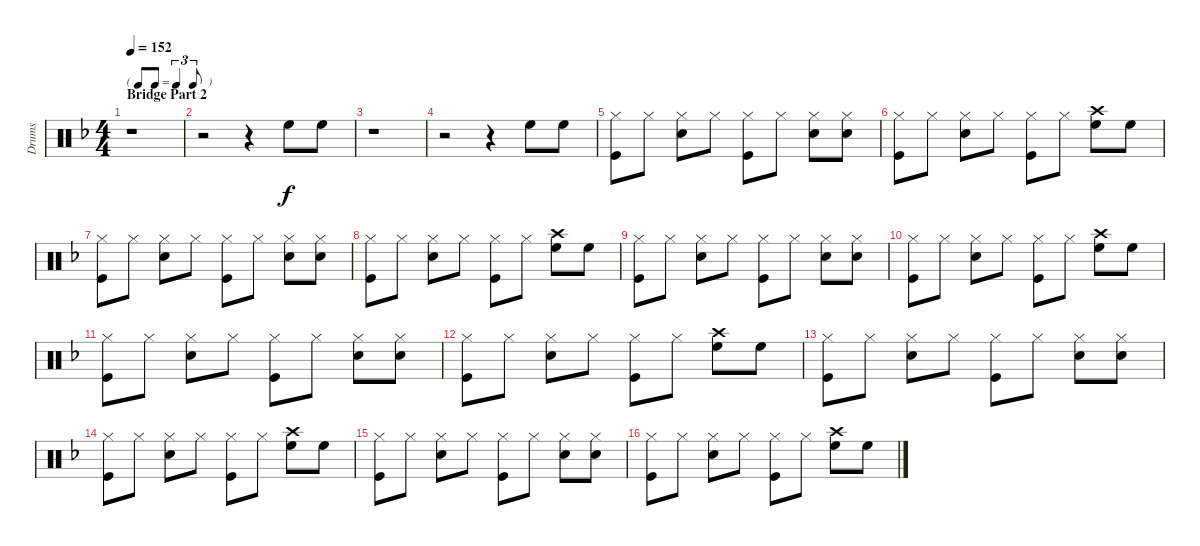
\track ("Drums" "Drums") {instrument percussion}
\staff {score}
\articulation defaults
\ts (4 4)
\tf triplet8th
\section ("" "Bridge Part 2")
\tempo 152
\clef neutral
\ks f
r.1{dy f} |
r.2 r.4 "High Floor Tom (hit)".8 "High Floor Tom (hit)".8 |
r.1 |
r.2 r.4 "High Floor Tom (hit)".8 "High Floor Tom (hit)".8 |
("Hi-Hat (closed)" "Kick (hit)").8 "Hi-Hat (closed)".8 ("Hi-Hat (closed)" "Snare (hit) 2").8 "Hi-Hat (closed)".8 ("Hi-Hat (closed)" "Kick (hit)").8 "Hi-Hat (closed)".8 ("Hi-Hat (closed)" "Snare (hit) 2").8 ("Hi-Hat (closed)" "Snare (hit) 2").8 |
("Hi-Hat (closed)" "Kick (hit)").8 "Hi-Hat (closed)".8 ("Hi-Hat (closed)" "Snare (hit) 2").8 "Hi-Hat (closed)".8 ("Hi-Hat (closed)" "Kick (hit)").8 "Hi-Hat (closed)".8 ("Crash high (hit)" "High Floor Tom (hit)").8 "High Floor Tom (hit)".8 |
("Hi-Hat (closed)" "Kick (hit)").8 "Hi-Hat (closed)".8 ("Hi-Hat (closed)" "Snare (hit) 2").8 "Hi-Hat (closed)".8 ("Hi-Hat (closed)" "Kick (hit)").8 "Hi-Hat (closed)".8 ("Hi-Hat (closed)" "Snare (hit) 2").8 ("Hi-Hat (closed)" "Snare (hit) 2").8 |
("Hi-Hat (closed)" "Kick (hit)").8 "Hi-Hat (closed)".8 ("Hi-Hat (closed)" "Snare (hit) 2").8 "Hi-Hat (closed)".8 ("Hi-Hat (closed)" "Kick (hit)").8 "Hi-Hat (closed)".8 ("Crash high (hit)" "High Floor Tom (hit)").8 "High Floor Tom (hit)".8 |
("Hi-Hat (closed)" "Kick (hit)").8 "Hi-Hat (closed)".8 ("Hi-Hat (closed)" "Snare (hit) 2").8 "Hi-Hat (closed)".8 ("Hi-Hat (closed)" "Kick (hit)").8 "Hi-Hat (closed)".8 ("Hi-Hat (closed)" "Snare (hit) 2").8 ("Hi-Hat (closed)" "Snare (hit) 2").8 |
("Hi-Hat (closed)" "Kick (hit)").8 "Hi-Hat (closed)".8 ("Hi-Hat (closed)" "Snare (hit) 2").8 "Hi-Hat (closed)".8 ("Hi-Hat (closed)" "Kick (hit)").8 "Hi-Hat (closed)".8 ("Crash high (hit)" "High Floor Tom (hit)").8 "High Floor Tom (hit)".8 |
("Hi-Hat (closed)" "Kick (hit)").8 "Hi-Hat (closed)".8 ("Hi-Hat (closed)" "Snare (hit) 2").8 "Hi-Hat (closed)".8 ("Hi-Hat (closed)" "Kick (hit)").8 "Hi-Hat (closed)".8 ("Hi-Hat (closed)" "Snare (hit) 2").8 ("Hi-Hat (closed)" "Snare (hit) 2").8 |
("Hi-Hat (closed)" "Kick (hit)").8 "Hi-Hat (closed)".8 ("Hi-Hat (closed)" "Snare (hit) 2").8 "Hi-Hat (closed)".8 ("Hi-Hat (closed)" "Kick (hit)").8 "Hi-Hat (closed)".8 ("Crash high (hit)" "High Floor Tom (hit)").8 "High Floor Tom (hit)".8 |
("Hi-Hat (closed)" "Kick (hit)").8 "Hi-Hat (closed)".8 ("Hi-Hat (closed)" "Snare (hit) 2").8 "Hi-Hat (closed)".8 ("Hi-Hat (closed)" "Kick (hit)").8 "Hi-Hat (closed)".8 ("Hi-Hat (closed)" "Snare (hit) 2").8 ("Hi-Hat (closed)" "Snare (hit) 2").8 |
("Hi-Hat (closed)" "Kick (hit)").8 "Hi-Hat (closed)".8 ("Hi-Hat (closed)" "Snare (hit) 2").8 "Hi-Hat (closed)".8 ("Hi-Hat (closed)" "Kick (hit)").8 "Hi-Hat (closed)".8 ("Crash high (hit)" "High Floor Tom (hit)").8 "High Floor Tom (hit)".8 |
("Hi-Hat (closed)" "Kick (hit)").8 "Hi-Hat (closed)".8 ("Hi-Hat (closed)" "Snare (hit) 2").8 "Hi-Hat (closed)".8 ("Hi-Hat (closed)" "Kick (hit)").8 "Hi-Hat (closed)".8 ("Hi-Hat (closed)" "Snare (hit) 2").8 ("Hi-Hat (closed)" "Snare (hit) 2").8 |
("Hi-Hat (closed)" "Kick (hit)").8 "Hi-Hat (closed)".8 ("Hi-Hat (closed)" "Snare (hit) 2").8 "Hi-Hat (closed)".8 ("Hi-Hat (closed)" "Kick (hit)").8 "Hi-Hat (closed)".8 ("Crash high (hit)" "High Floor Tom (hit)").8 "High Floor Tom (hit)".8
